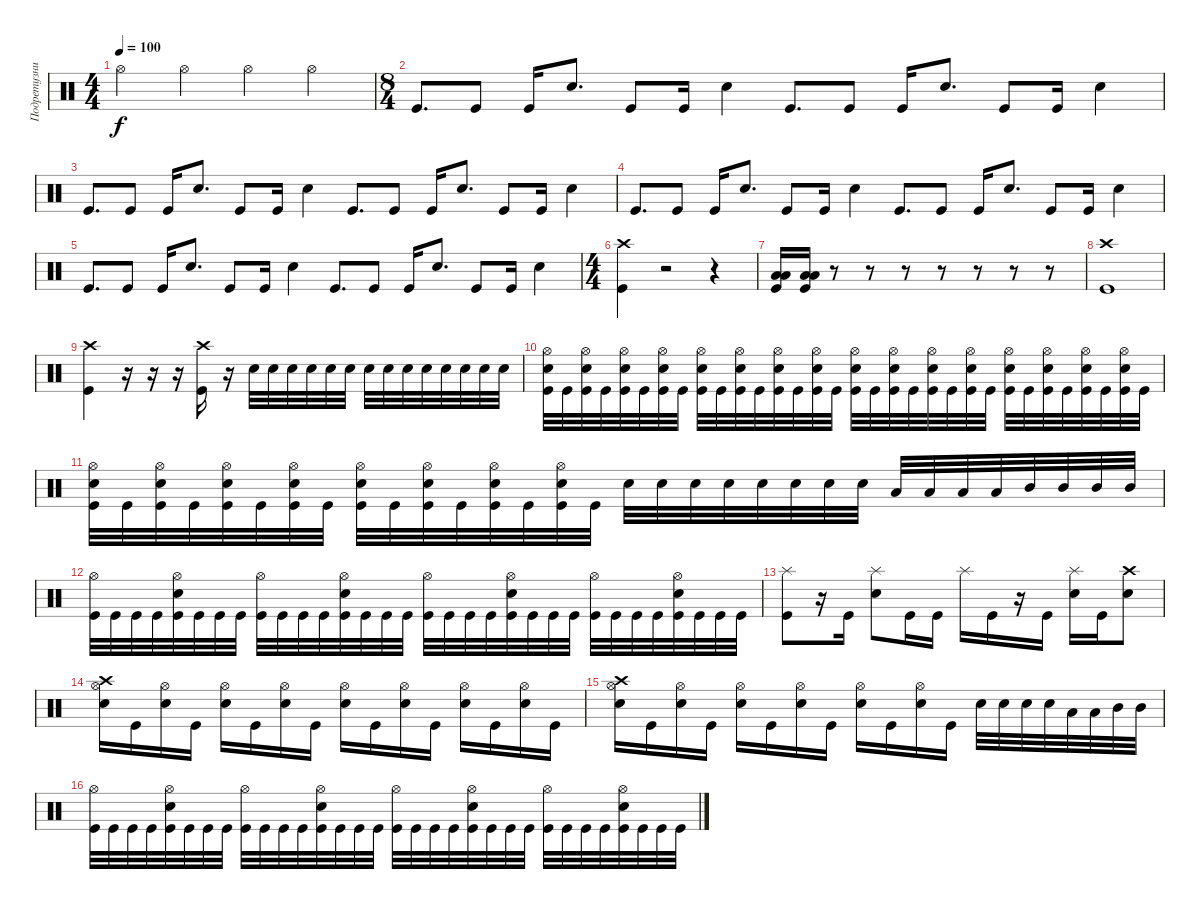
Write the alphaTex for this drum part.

\track ("Подретузник" "Подретузни") {instrument percussion}
\staff {score}
\articulation defaults
\ts (4 4)
\tempo 100
\clef neutral
\ks c "Hi-Hat (open)".4{dy f} "Hi-Hat (open)".4 "Hi-Hat (open)".4 "Hi-Hat (open)".4
|
\ts (8 4)
"Kick (hit)".8{d} "Kick (hit)".8 "Kick (hit)".16 "Electric Snare (hit)".8{d} "Kick (hit)".8 "Kick (hit)".16 "Electric Snare (hit)".4 "Kick (hit)".8{d} "Kick (hit)".8 "Kick (hit)".16 "Electric Snare (hit)".8{d} "Kick (hit)".8 "Kick (hit)".16 "Electric Snare (hit)".4 |
"Kick (hit)".8{d} "Kick (hit)".8 "Kick (hit)".16 "Electric Snare (hit)".8{d} "Kick (hit)".8 "Kick (hit)".16 "Electric Snare (hit)".4 "Kick (hit)".8{d} "Kick (hit)".8 "Kick (hit)".16 "Electric Snare (hit)".8{d} "Kick (hit)".8 "Kick (hit)".16 "Electric Snare (hit)".4 |
"Kick (hit)".8{d} "Kick (hit)".8 "Kick (hit)".16 "Electric Snare (hit)".8{d} "Kick (hit)".8 "Kick (hit)".16 "Electric Snare (hit)".4 "Kick (hit)".8{d} "Kick (hit)".8 "Kick (hit)".16 "Electric Snare (hit)".8{d} "Kick (hit)".8 "Kick (hit)".16 "Electric Snare (hit)".4 |
"Kick (hit)".8{d} "Kick (hit)".8 "Kick (hit)".16 "Electric Snare (hit)".8{d} "Kick (hit)".8 "Kick (hit)".16 "Electric Snare (hit)".4 "Kick (hit)".8{d} "Kick (hit)".8 "Kick (hit)".16 "Electric Snare (hit)".8{d} "Kick (hit)".8 "Kick (hit)".16 "Electric Snare (hit)".4 |
\ts (4 4)
("Crash high (hit)" "Kick (hit)").4 r.2 r.4 |
("Low Tom (hit)" "Low Floor Tom (hit)" "Kick (hit)").16 ("Low Tom (hit)" "Low Floor Tom (hit)" "Kick (hit)").16 r.8 r.8 r.8 r.8 r.8 r.8 r.8 |
("Crash high (hit)" "Kick (hit)").1 |
("Crash high (hit)" "Kick (hit)").4 r.16 r.16 r.16 ("Crash high (hit)" "Kick (hit)").16 r.16 "Electric Snare (hit)".32 "Electric Snare (hit)".32 "Electric Snare (hit)".32 "Electric Snare (hit)".32 "Electric Snare (hit)".32 "Electric Snare (hit)".32 "Electric Snare (hit)".32 "Electric Snare (hit)".32 "Electric Snare (hit)".32 "Electric Snare (hit)".32 "Electric Snare (hit)".32 "Electric Snare (hit)".32 "Electric Snare (hit)".32 "Electric Snare (hit)".32 |
("Hi-Hat (open)" "Electric Snare (hit)" "Kick (hit)").32 "Kick (hit)".32 ("Hi-Hat (open)" "Electric Snare (hit)" "Kick (hit)").32 "Kick (hit)".32 ("Hi-Hat (open)" "Electric Snare (hit)" "Kick (hit)").32 "Kick (hit)".32 ("Hi-Hat (open)" "Electric Snare (hit)" "Kick (hit)").32 "Kick (hit)".32 ("Hi-Hat (open)" "Electric Snare (hit)" "Kick (hit)").32 "Kick (hit)".32 ("Hi-Hat (open)" "Electric Snare (hit)" "Kick (hit)").32 "Kick (hit)".32 ("Hi-Hat (open)" "Electric Snare (hit)" "Kick (hit)").32 "Kick (hit)".32 ("Hi-Hat (open)" "Electric Snare (hit)" "Kick (hit)").32 "Kick (hit)".32 ("Hi-Hat (open)" "Electric Snare (hit)" "Kick (hit)").32 "Kick (hit)".32 ("Hi-Hat (open)" "Electric Snare (hit)" "Kick (hit)").32 "Kick (hit)".32 ("Hi-Hat (open)" "Electric Snare (hit)" "Kick (hit)").32 "Kick (hit)".32 ("Hi-Hat (open)" "Electric Snare (hit)" "Kick (hit)").32 "Kick (hit)".32 ("Hi-Hat (open)" "Electric Snare (hit)" "Kick (hit)").32 "Kick (hit)".32 ("Hi-Hat (open)" "Electric Snare (hit)" "Kick (hit)").32 "Kick (hit)".32 ("Hi-Hat (open)" "Electric Snare (hit)" "Kick (hit)").32 "Kick (hit)".32 ("Hi-Hat (open)" "Electric Snare (hit)" "Kick (hit)").32 "Kick (hit)".32 |
("Hi-Hat (open)" "Electric Snare (hit)" "Kick (hit)").32 "Kick (hit)".32 ("Hi-Hat (open)" "Electric Snare (hit)" "Kick (hit)").32 "Kick (hit)".32 ("Hi-Hat (open)" "Electric Snare (hit)" "Kick (hit)").32 "Kick (hit)".32 ("Hi-Hat (open)" "Electric Snare (hit)" "Kick (hit)").32 "Kick (hit)".32 ("Hi-Hat (open)" "Electric Snare (hit)" "Kick (hit)").32 "Kick (hit)".32 ("Hi-Hat (open)" "Electric Snare (hit)" "Kick (hit)").32 "Kick (hit)".32 ("Hi-Hat (open)" "Electric Snare (hit)" "Kick (hit)").32 "Kick (hit)".32 ("Hi-Hat (open)" "Electric Snare (hit)" "Kick (hit)").32 "Kick (hit)".32 "Electric Snare (hit)".32 "Electric Snare (hit)".32 "Electric Snare (hit)".32 "Electric Snare (hit)".32 "Electric Snare (hit)".32 "Electric Snare (hit)".32 "Electric Snare (hit)".32 "Electric Snare (hit)".32 "Low Tom (hit)".32 "Low Tom (hit)".32 "Low Tom (hit)".32 "Low Tom (hit)".32 "Mid Tom (hit)".32 "Mid Tom (hit)".32 "Mid Tom (hit)".32 "Mid Tom (hit)".32 |
("Hi-Hat (open)" "Kick (hit)").32 "Kick (hit)".32 "Kick (hit)".32 "Kick (hit)".32 ("Hi-Hat (open)" "Electric Snare (hit)" "Kick (hit)").32 "Kick (hit)".32 "Kick (hit)".32 "Kick (hit)".32 ("Hi-Hat (open)" "Kick (hit)").32 "Kick (hit)".32 "Kick (hit)".32 "Kick (hit)".32 ("Hi-Hat (open)" "Electric Snare (hit)" "Kick (hit)").32 "Kick (hit)".32 "Kick (hit)".32 "Kick (hit)".32 ("Hi-Hat (open)" "Kick (hit)").32 "Kick (hit)".32 "Kick (hit)".32 "Kick (hit)".32 ("Hi-Hat (open)" "Electric Snare (hit)" "Kick (hit)").32 "Kick (hit)".32 "Kick (hit)".32 "Kick (hit)".32 ("Hi-Hat (open)" "Kick (hit)").32 "Kick (hit)".32 "Kick (hit)".32 "Kick (hit)".32 ("Hi-Hat (open)" "Electric Snare (hit)" "Kick (hit)").32 "Kick (hit)".32 "Kick (hit)".32 "Kick (hit)".32 |
("Splash (hit)" "Kick (hit)").8 r.16 "Kick (hit)".16 ("Splash (hit)" "Electric Snare (hit)").8 "Kick (hit)".16 "Kick (hit)".16 "Splash (hit)".16 "Kick (hit)".16 r.16 "Kick (hit)".16 ("Splash (hit)" "Electric Snare (hit)").16 "Kick (hit)".16 ("Crash high (hit)" "Electric Snare (hit)").8 |
("Crash high (hit)" "Hi-Hat (open)" "Electric Snare (hit)").16 "Kick (hit)".16 ("Hi-Hat (open)" "Electric Snare (hit)").16 "Kick (hit)".16 ("Hi-Hat (open)" "Electric Snare (hit)").16 "Kick (hit)".16 ("Hi-Hat (open)" "Electric Snare (hit)").16 "Kick (hit)".16 ("Hi-Hat (open)" "Electric Snare (hit)").16 "Kick (hit)".16 ("Hi-Hat (open)" "Electric Snare (hit)").16 "Kick (hit)".16 ("Hi-Hat (open)" "Electric Snare (hit)").16 "Kick (hit)".16 ("Hi-Hat (open)" "Electric Snare (hit)").16 "Kick (hit)".16 |
("Crash high (hit)" "Hi-Hat (open)" "Electric Snare (hit)").16 "Kick (hit)".16 ("Hi-Hat (open)" "Electric Snare (hit)").16 "Kick (hit)".16 ("Hi-Hat (open)" "Electric Snare (hit)").16 "Kick (hit)".16 ("Hi-Hat (open)" "Electric Snare (hit)").16 "Kick (hit)".16 ("Hi-Hat (open)" "Electric Snare (hit)").16 "Kick (hit)".16 ("Hi-Hat (open)" "Electric Snare (hit)").16 "Kick (hit)".16 "Electric Snare (hit)".32 "Electric Snare (hit)".32 "Electric Snare (hit)".32 "Electric Snare (hit)".32 "Low Tom (hit)".32 "Low Tom (hit)".32 "Mid Tom (hit)".32 "Mid Tom (hit)".32 |
("Hi-Hat (open)" "Kick (hit)").32 "Kick (hit)".32 "Kick (hit)".32 "Kick (hit)".32 ("Hi-Hat (open)" "Electric Snare (hit)" "Kick (hit)").32 "Kick (hit)".32 "Kick (hit)".32 "Kick (hit)".32 ("Hi-Hat (open)" "Kick (hit)").32 "Kick (hit)".32 "Kick (hit)".32 "Kick (hit)".32 ("Hi-Hat (open)" "Electric Snare (hit)" "Kick (hit)").32 "Kick (hit)".32 "Kick (hit)".32 "Kick (hit)".32 ("Hi-Hat (open)" "Kick (hit)").32 "Kick (hit)".32 "Kick (hit)".32 "Kick (hit)".32 ("Hi-Hat (open)" "Electric Snare (hit)" "Kick (hit)").32 "Kick (hit)".32 "Kick (hit)".32 "Kick (hit)".32 ("Hi-Hat (open)" "Kick (hit)").32 "Kick (hit)".32 "Kick (hit)".32 "Kick (hit)".32 ("Hi-Hat (open)" "Electric Snare (hit)" "Kick (hit)").32 "Kick (hit)".32 "Kick (hit)".32 "Kick (hit)".32
